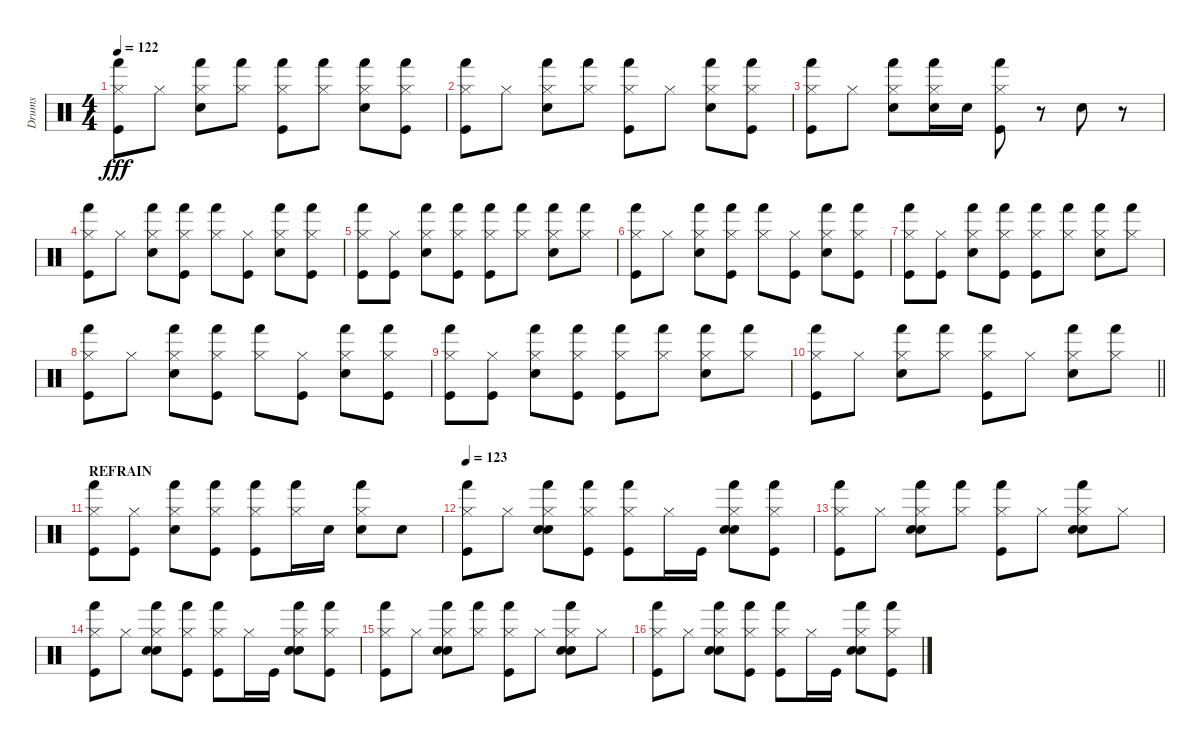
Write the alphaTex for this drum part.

\track ("Drums" "Drums") {instrument percussion}
\staff {score}
\articulation defaults
\ts (4 4)
\tempo 122
\clef neutral
\ks c
("Hi-Hat (closed)" "Kick (hit)" "Hand (hit)").8{dy fff} "Hi-Hat (closed)".8 ("Electric Snare (hit)" "Hand (hit)" "Hi-Hat (closed)").8 ("Hand (hit)" "Hi-Hat (closed)").8 ("Hand (hit)" "Hi-Hat (closed)" "Kick (hit)").8 ("Hand (hit)" "Hi-Hat (closed)").8 ("Hi-Hat (closed)" "Hand (hit)" "Electric Snare (hit)").8 ("Hand (hit)" "Hi-Hat (closed)" "Kick (hit)").8 |
("Hi-Hat (closed)" "Kick (hit)" "Hand (hit)").8 "Hi-Hat (closed)".8 ("Electric Snare (hit)" "Hi-Hat (closed)" "Hand (hit)").8 ("Hand (hit)" "Hi-Hat (closed)").8 ("Hand (hit)" "Kick (hit)" "Hi-Hat (closed)").8 "Hi-Hat (closed)".8 ("Hi-Hat (closed)" "Hand (hit)" "Electric Snare (hit)").8 ("Hi-Hat (closed)" "Hand (hit)" "Kick (hit)").8 |
("Hi-Hat (closed)" "Kick (hit)" "Hand (hit)").8 "Hi-Hat (closed)".8 ("Hi-Hat (closed)" "Hand (hit)" "Electric Snare (hit)").8 ("Hi-Hat (closed)" "Electric Snare (hit)" "Hand (hit)").16 "Electric Snare (hit)".16 ("Hi-Hat (closed)" "Hand (hit)" "Kick (hit)").8 r.8 "Electric Snare (hit)".8 r.8 |
("Hand (hit)" "Hi-Hat (closed)" "Kick (hit)").8 "Hi-Hat (closed)".8 ("Electric Snare (hit)" "Hi-Hat (closed)" "Hand (hit)").8 ("Hand (hit)" "Hi-Hat (closed)" "Kick (hit)").8 ("Hi-Hat (closed)" "Hand (hit)").8 ("Kick (hit)" "Hi-Hat (closed)").8 ("Hi-Hat (closed)" "Electric Snare (hit)" "Hand (hit)").8 ("Kick (hit)" "Hi-Hat (closed)" "Hand (hit)").8 |
("Kick (hit)" "Hi-Hat (closed)" "Hand (hit)").8 ("Kick (hit)" "Hi-Hat (closed)").8 ("Electric Snare (hit)" "Hand (hit)" "Hi-Hat (closed)").8 ("Kick (hit)" "Hand (hit)" "Hi-Hat (closed)").8 ("Hi-Hat (closed)" "Kick (hit)" "Hand (hit)").8 ("Hand (hit)" "Hi-Hat (closed)").8 ("Electric Snare (hit)" "Hand (hit)" "Hi-Hat (closed)").8 ("Hand (hit)" "Hi-Hat (closed)").8 |
("Hand (hit)" "Hi-Hat (closed)" "Kick (hit)").8 "Hi-Hat (closed)".8 ("Electric Snare (hit)" "Hi-Hat (closed)" "Hand (hit)").8 ("Hand (hit)" "Hi-Hat (closed)" "Kick (hit)").8 ("Hi-Hat (closed)" "Hand (hit)").8 ("Kick (hit)" "Hi-Hat (closed)").8 ("Hi-Hat (closed)" "Electric Snare (hit)" "Hand (hit)").8 ("Kick (hit)" "Hi-Hat (closed)" "Hand (hit)").8 |
("Kick (hit)" "Hi-Hat (closed)" "Hand (hit)").8 ("Kick (hit)" "Hi-Hat (closed)").8 ("Electric Snare (hit)" "Hand (hit)" "Hi-Hat (closed)").8 ("Kick (hit)" "Hand (hit)" "Hi-Hat (closed)").8 ("Hi-Hat (closed)" "Kick (hit)" "Hand (hit)").8 ("Hand (hit)" "Hi-Hat (closed)").8 ("Electric Snare (hit)" "Hand (hit)" "Hi-Hat (closed)").8 ("Hand (hit)" "Hi-Hat (closed)").8 |
("Hand (hit)" "Hi-Hat (closed)" "Kick (hit)").8 "Hi-Hat (closed)".8 ("Electric Snare (hit)" "Hi-Hat (closed)" "Hand (hit)").8 ("Hand (hit)" "Hi-Hat (closed)" "Kick (hit)").8 ("Hi-Hat (closed)" "Hand (hit)").8 ("Kick (hit)" "Hi-Hat (closed)").8 ("Hi-Hat (closed)" "Electric Snare (hit)" "Hand (hit)").8 ("Kick (hit)" "Hi-Hat (closed)" "Hand (hit)").8 |
("Kick (hit)" "Hi-Hat (closed)" "Hand (hit)").8 ("Kick (hit)" "Hi-Hat (closed)").8 ("Electric Snare (hit)" "Hand (hit)" "Hi-Hat (closed)").8 ("Kick (hit)" "Hand (hit)" "Hi-Hat (closed)").8 ("Hi-Hat (closed)" "Kick (hit)" "Hand (hit)").8 ("Hand (hit)" "Hi-Hat (closed)").8 ("Electric Snare (hit)" "Hand (hit)" "Hi-Hat (closed)").8 ("Hand (hit)" "Hi-Hat (closed)").8 |
\barLineRight lightlight
("Hi-Hat (closed)" "Kick (hit)" "Hand (hit)").8 "Hi-Hat (closed)".8 ("Hi-Hat (closed)" "Electric Snare (hit)" "Hand (hit)").8 ("Hi-Hat (closed)" "Hand (hit)").8 ("Hi-Hat (closed)" "Kick (hit)" "Hand (hit)").8 "Hi-Hat (closed)".8 ("Hi-Hat (closed)" "Hand (hit)" "Electric Snare (hit)").8 ("Hi-Hat (closed)" "Hand (hit)").8 |
\section ("" "REFRAIN")
("Hi-Hat (closed)" "Hand (hit)" "Kick (hit)").8 ("Kick (hit)" "Hi-Hat (closed)").8 ("Hi-Hat (closed)" "Hand (hit)" "Electric Snare (hit)").8 ("Hi-Hat (closed)" "Hand (hit)" "Kick (hit)").8 ("Hand (hit)" "Hi-Hat (closed)" "Kick (hit)").8 ("Hand (hit)" "Hi-Hat (closed)").16 "Electric Snare (hit)".16 ("Hi-Hat (closed)" "Hand (hit)" "Electric Snare (hit)").8 "Electric Snare (hit)".8 |
\tempo 123
("Kick (hit)" "Hand (hit)" "Hi-Hat (closed)").8 "Hi-Hat (closed)".8 ("Hi-Hat (closed)" "Electric Snare (hit)" "Hand (hit)" "Hand Clap (hit)").8 ("Hand (hit)" "Kick (hit)" "Hi-Hat (closed)").8 ("Hi-Hat (closed)" "Hand (hit)" "Kick (hit)").8 "Hi-Hat (closed)".16 "Kick (hit)".16 ("Hand Clap (hit)" "Hi-Hat (closed)" "Hand (hit)" "Electric Snare (hit)").8 ("Hi-Hat (closed)" "Hand (hit)" "Kick (hit)").8 |
("Hi-Hat (closed)" "Hand (hit)" "Kick (hit)").8 "Hi-Hat (closed)".8 ("Hand Clap (hit)" "Electric Snare (hit)" "Hand (hit)" "Hi-Hat (closed)").8 ("Hi-Hat (closed)" "Hand (hit)").8 ("Hi-Hat (closed)" "Kick (hit)" "Hand (hit)").8 "Hi-Hat (closed)".8 ("Hand Clap (hit)" "Electric Snare (hit)" "Hand (hit)" "Hi-Hat (closed)").8 "Hi-Hat (closed)".8 |
("Kick (hit)" "Hand (hit)" "Hi-Hat (closed)").8 "Hi-Hat (closed)".8 ("Hi-Hat (closed)" "Electric Snare (hit)" "Hand (hit)" "Hand Clap (hit)").8 ("Hand (hit)" "Kick (hit)" "Hi-Hat (closed)").8 ("Hi-Hat (closed)" "Hand (hit)" "Kick (hit)").8 "Hi-Hat (closed)".16 "Kick (hit)".16 ("Hand Clap (hit)" "Hi-Hat (closed)" "Hand (hit)" "Electric Snare (hit)").8 ("Hi-Hat (closed)" "Hand (hit)" "Kick (hit)").8 |
("Hi-Hat (closed)" "Hand (hit)" "Kick (hit)").8 "Hi-Hat (closed)".8 ("Hand Clap (hit)" "Electric Snare (hit)" "Hand (hit)" "Hi-Hat (closed)").8 ("Hi-Hat (closed)" "Hand (hit)").8 ("Hi-Hat (closed)" "Kick (hit)" "Hand (hit)").8 "Hi-Hat (closed)".8 ("Hand Clap (hit)" "Electric Snare (hit)" "Hand (hit)" "Hi-Hat (closed)").8 "Hi-Hat (closed)".8 |
("Kick (hit)" "Hand (hit)" "Hi-Hat (closed)").8 "Hi-Hat (closed)".8 ("Hi-Hat (closed)" "Electric Snare (hit)" "Hand (hit)" "Hand Clap (hit)").8 ("Hand (hit)" "Kick (hit)" "Hi-Hat (closed)").8 ("Hi-Hat (closed)" "Hand (hit)" "Kick (hit)").8 "Hi-Hat (closed)".16 "Kick (hit)".16 ("Hand Clap (hit)" "Hi-Hat (closed)" "Hand (hit)" "Electric Snare (hit)").8 ("Hi-Hat (closed)" "Hand (hit)" "Kick (hit)").8
